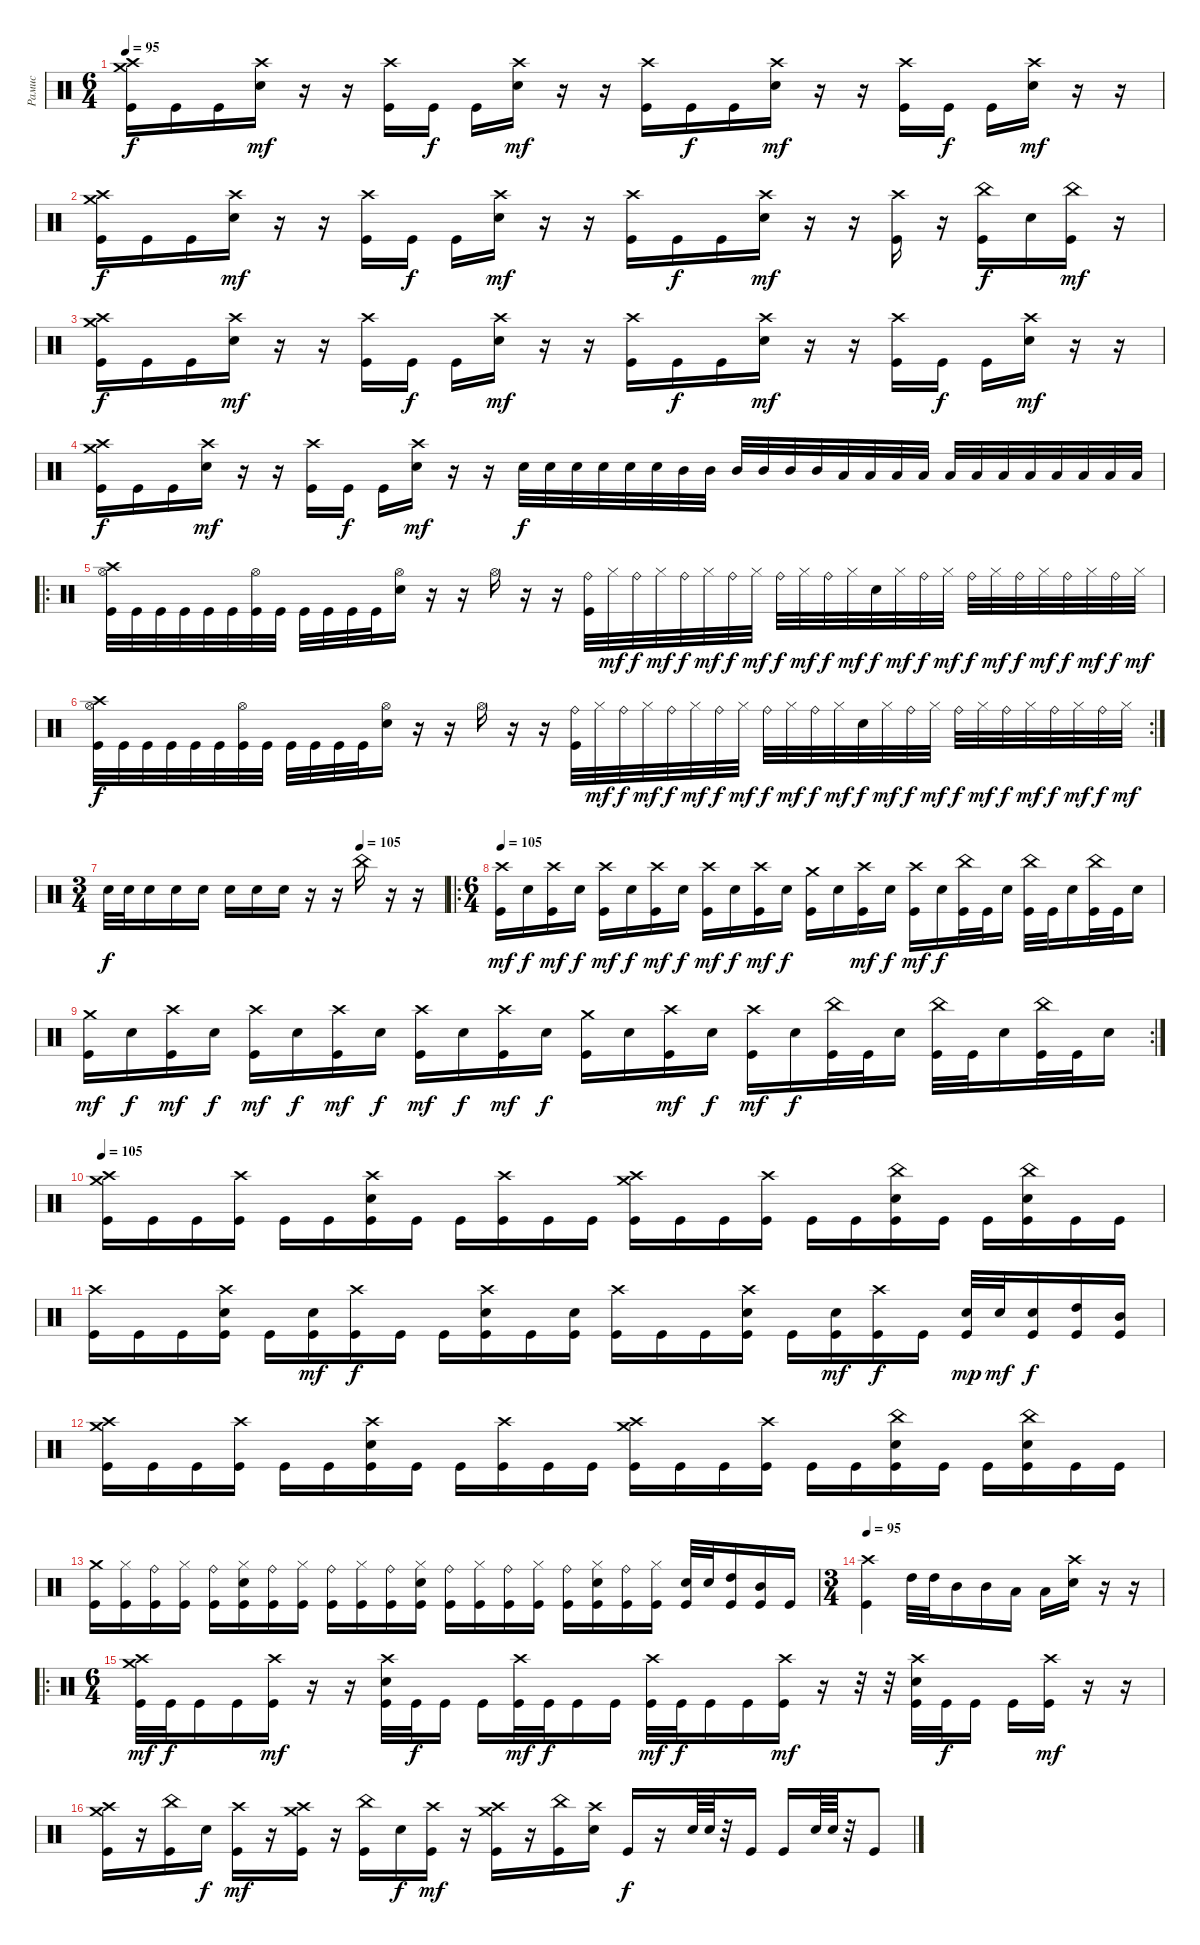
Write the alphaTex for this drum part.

\track ("Рамис" "Рамис") {instrument percussion}
\staff {score}
\articulation defaults
\ts (6 4)
\tempo 95
\clef neutral
\ks c
("Crash medium (hit)" "Crash high (hit)" "Kick (hit)").16{dy f} "Kick (hit)".16 "Kick (hit)".16 ("Crash high (hit)" "Electric Snare (hit)").16{dy mf} r.16 r.16 ("Crash high (hit)" "Kick (hit)").16 "Kick (hit)".16{dy f} "Kick (hit)".16 ("Crash high (hit)" "Electric Snare (hit)").16{dy mf} r.16 r.16 ("Crash high (hit)" "Kick (hit)").16 "Kick (hit)".16{dy f} "Kick (hit)".16 ("Crash high (hit)" "Electric Snare (hit)").16{dy mf} r.16 r.16 ("Crash high (hit)" "Kick (hit)").16 "Kick (hit)".16{dy f} "Kick (hit)".16 ("Crash high (hit)" "Electric Snare (hit)").16{dy mf} r.16 r.16 |
("Crash medium (hit)" "Crash high (hit)" "Kick (hit)").16{dy f} "Kick (hit)".16 "Kick (hit)".16 ("Crash high (hit)" "Electric Snare (hit)").16{dy mf} r.16 r.16 ("Crash high (hit)" "Kick (hit)").16 "Kick (hit)".16{dy f} "Kick (hit)".16 ("Crash high (hit)" "Electric Snare (hit)").16{dy mf} r.16 r.16 ("Crash high (hit)" "Kick (hit)").16 "Kick (hit)".16{dy f} "Kick (hit)".16 ("Crash high (hit)" "Electric Snare (hit)").16{dy mf} r.16 r.16 ("Crash high (hit)" "Kick (hit)").16 r.16 ("China (hit)" "Kick (hit)").16{dy f} "Electric Snare (hit)".16 ("China (hit)" "Kick (hit)").16{dy mf} r.16 |
("Crash medium (hit)" "Crash high (hit)" "Kick (hit)").16{dy f} "Kick (hit)".16 "Kick (hit)".16 ("Crash high (hit)" "Electric Snare (hit)").16{dy mf} r.16 r.16 ("Crash high (hit)" "Kick (hit)").16 "Kick (hit)".16{dy f} "Kick (hit)".16 ("Crash high (hit)" "Electric Snare (hit)").16{dy mf} r.16 r.16 ("Crash high (hit)" "Kick (hit)").16 "Kick (hit)".16{dy f} "Kick (hit)".16 ("Crash high (hit)" "Electric Snare (hit)").16{dy mf} r.16 r.16 ("Crash high (hit)" "Kick (hit)").16 "Kick (hit)".16{dy f} "Kick (hit)".16 ("Crash high (hit)" "Electric Snare (hit)").16{dy mf} r.16 r.16 |
("Crash medium (hit)" "Crash high (hit)" "Kick (hit)").16{dy f} "Kick (hit)".16 "Kick (hit)".16 ("Crash high (hit)" "Electric Snare (hit)").16{dy mf} r.16 r.16 ("Crash high (hit)" "Kick (hit)").16 "Kick (hit)".16{dy f} "Kick (hit)".16 ("Crash high (hit)" "Electric Snare (hit)").16{dy mf} r.16 r.16 "Electric Snare (hit)".32{dy f} "Electric Snare (hit)".32 "Electric Snare (hit)".32 "Electric Snare (hit)".32 "Electric Snare (hit)".32 "Electric Snare (hit)".32 "Mid Tom (hit)".32 "Mid Tom (hit)".32 "Mid Tom (hit)".32 "Mid Tom (hit)".32 "Mid Tom (hit)".32 "Mid Tom (hit)".32 "Low Tom (hit)".32 "Low Tom (hit)".32 "Low Tom (hit)".32 "Low Tom (hit)".32 "Low Tom (hit)".32 "Low Tom (hit)".32 "Low Tom (hit)".32 "Low Tom (hit)".32 "Low Tom (hit)".32 "Low Tom (hit)".32 "Low Tom (hit)".32 "Low Tom (hit)".32 |
\ro
("Crash high (hit)" "Hi-Hat (open)" "Kick (hit)").32 "Kick (hit)".32 "Kick (hit)".32 "Kick (hit)".32 "Kick (hit)".32 "Kick (hit)".32 ("Hi-Hat (open)" "Kick (hit)").32 "Kick (hit)".32 "Kick (hit)".32 "Kick (hit)".32 "Kick (hit)".32 "Kick (hit)".32 ("Hi-Hat (open)" "Electric Snare (hit)").16 r.16 r.16 "Hi-Hat (open)".16 r.16 r.16 ("Ride (bell)" "Kick (hit)").32 "Hi-Hat (closed)".32{dy mf} "Ride (bell)".32{dy f} "Hi-Hat (closed)".32{dy mf} "Ride (bell)".32{dy f} "Hi-Hat (closed)".32{dy mf} "Ride (bell)".32{dy f} "Hi-Hat (closed)".32{dy mf} "Ride (bell)".32{dy f} "Hi-Hat (closed)".32{dy mf} "Ride (bell)".32{dy f} "Hi-Hat (closed)".32{dy mf} "Electric Snare (hit)".32{dy f} "Hi-Hat (closed)".32{dy mf} "Ride (bell)".32{dy f} "Hi-Hat (closed)".32{dy mf} "Ride (bell)".32{dy f} "Hi-Hat (closed)".32{dy mf} "Ride (bell)".32{dy f} "Hi-Hat (closed)".32{dy mf} "Ride (bell)".32{dy f} "Hi-Hat (closed)".32{dy mf} "Ride (bell)".32{dy f} "Hi-Hat (closed)".32{dy mf} |
\rc 2
("Crash high (hit)" "Hi-Hat (open)" "Kick (hit)").32{dy f} "Kick (hit)".32 "Kick (hit)".32 "Kick (hit)".32 "Kick (hit)".32 "Kick (hit)".32 ("Hi-Hat (open)" "Kick (hit)").32 "Kick (hit)".32 "Kick (hit)".32 "Kick (hit)".32 "Kick (hit)".32 "Kick (hit)".32 ("Hi-Hat (open)" "Electric Snare (hit)").16 r.16 r.16 "Hi-Hat (open)".16 r.16 r.16 ("Ride (bell)" "Kick (hit)").32 "Hi-Hat (closed)".32{dy mf} "Ride (bell)".32{dy f} "Hi-Hat (closed)".32{dy mf} "Ride (bell)".32{dy f} "Hi-Hat (closed)".32{dy mf} "Ride (bell)".32{dy f} "Hi-Hat (closed)".32{dy mf} "Ride (bell)".32{dy f} "Hi-Hat (closed)".32{dy mf} "Ride (bell)".32{dy f} "Hi-Hat (closed)".32{dy mf} "Electric Snare (hit)".32{dy f} "Hi-Hat (closed)".32{dy mf} "Ride (bell)".32{dy f} "Hi-Hat (closed)".32{dy mf} "Ride (bell)".32{dy f} "Hi-Hat (closed)".32{dy mf} "Ride (bell)".32{dy f} "Hi-Hat (closed)".32{dy mf} "Ride (bell)".32{dy f} "Hi-Hat (closed)".32{dy mf} "Ride (bell)".32{dy f} "Hi-Hat (closed)".32{dy mf} |
\ts (3 4)
\tempo (105 0.75)
"Electric Snare (hit)".32{dy f} "Electric Snare (hit)".32 "Electric Snare (hit)".16 "Electric Snare (hit)".16 "Electric Snare (hit)".16 "Electric Snare (hit)".16 "Electric Snare (hit)".16 "Electric Snare (hit)".16 r.16 r.16 "China (hit)".16 r.16 r.16 |
\ro
\ts (6 4)
\tempo 105
("Crash high (hit)" "Kick (hit)").16{dy mf} "Electric Snare (hit)".16{dy f} ("Crash high (hit)" "Kick (hit)").16{dy mf} "Electric Snare (hit)".16{dy f} ("Crash high (hit)" "Kick (hit)").16{dy mf} "Electric Snare (hit)".16{dy f} ("Crash high (hit)" "Kick (hit)").16{dy mf} "Electric Snare (hit)".16{dy f} ("Crash high (hit)" "Kick (hit)").16{dy mf} "Electric Snare (hit)".16{dy f} ("Crash high (hit)" "Kick (hit)").16{dy mf} "Electric Snare (hit)".16{dy f} ("Crash medium (hit)" "Kick (hit)").16 "Electric Snare (hit)".16 ("Crash high (hit)" "Kick (hit)").16{dy mf} "Electric Snare (hit)".16{dy f} ("Crash high (hit)" "Kick (hit)").16{dy mf} "Electric Snare (hit)".16{dy f} ("China (hit)" "Kick (hit)").32 "Kick (hit)".32 "Electric Snare (hit)".16 ("China (hit)" "Kick (hit)").32 "Kick (hit)".32 "Electric Snare (hit)".16 ("China (hit)" "Kick (hit)").32 "Kick (hit)".32 "Electric Snare (hit)".16 |
\rc 2
("Crash medium (hit)" "Kick (hit)").16{dy mf} "Electric Snare (hit)".16{dy f} ("Crash high (hit)" "Kick (hit)").16{dy mf} "Electric Snare (hit)".16{dy f} ("Crash high (hit)" "Kick (hit)").16{dy mf} "Electric Snare (hit)".16{dy f} ("Crash high (hit)" "Kick (hit)").16{dy mf} "Electric Snare (hit)".16{dy f} ("Crash high (hit)" "Kick (hit)").16{dy mf} "Electric Snare (hit)".16{dy f} ("Crash high (hit)" "Kick (hit)").16{dy mf} "Electric Snare (hit)".16{dy f} ("Crash medium (hit)" "Kick (hit)").16 "Electric Snare (hit)".16 ("Crash high (hit)" "Kick (hit)").16{dy mf} "Electric Snare (hit)".16{dy f} ("Crash high (hit)" "Kick (hit)").16{dy mf} "Electric Snare (hit)".16{dy f} ("China (hit)" "Kick (hit)").32 "Kick (hit)".32 "Electric Snare (hit)".16 ("China (hit)" "Kick (hit)").32 "Kick (hit)".32 "Electric Snare (hit)".16 ("China (hit)" "Kick (hit)").32 "Kick (hit)".32 "Electric Snare (hit)".16 |
\tempo 105
("Crash high (hit)" "Crash medium (hit)" "Kick (hit)").16 "Kick (hit)".16 "Kick (hit)".16 ("Crash high (hit)" "Kick (hit)").16 "Kick (hit)".16 "Kick (hit)".16 ("Crash high (hit)" "Electric Snare (hit)" "Kick (hit)").16 "Kick (hit)".16 "Kick (hit)".16 ("Crash high (hit)" "Kick (hit)").16 "Kick (hit)".16 "Kick (hit)".16 ("Crash high (hit)" "Crash medium (hit)" "Kick (hit)").16 "Kick (hit)".16 "Kick (hit)".16 ("Crash high (hit)" "Kick (hit)").16 "Kick (hit)".16 "Kick (hit)".16 ("China (hit)" "Electric Snare (hit)" "Kick (hit)").16 "Kick (hit)".16 "Kick (hit)".16 ("China (hit)" "Electric Snare (hit)" "Kick (hit)").16 "Kick (hit)".16 "Kick (hit)".16 |
("Crash high (hit)" "Kick (hit)").16 "Kick (hit)".16 "Kick (hit)".16 ("Crash high (hit)" "Electric Snare (hit)" "Kick (hit)").16 "Kick (hit)".16 ("Electric Snare (hit)" "Kick (hit)").16{dy mf} ("Crash high (hit)" "Kick (hit)").16{dy f} "Kick (hit)".16 "Kick (hit)".16 ("Crash high (hit)" "Electric Snare (hit)" "Kick (hit)").16 "Kick (hit)".16 ("Electric Snare (hit)" "Kick (hit)").16 ("Crash high (hit)" "Kick (hit)").16 "Kick (hit)".16 "Kick (hit)".16 ("Crash high (hit)" "Electric Snare (hit)" "Kick (hit)").16 "Kick (hit)".16 ("Electric Snare (hit)" "Kick (hit)").16{dy mf} ("Crash high (hit)" "Kick (hit)").16{dy f} "Kick (hit)".16 ("Electric Snare (hit)" "Kick (hit)").32{dy mp} "Electric Snare (hit)".32{dy mf} ("Electric Snare (hit)" "Kick (hit)").16{dy f} ("High Tom (hit)" "Kick (hit)").16 ("Mid Tom (hit)" "Kick (hit)").16 |
("Crash high (hit)" "Crash medium (hit)" "Kick (hit)").16 "Kick (hit)".16 "Kick (hit)".16 ("Crash high (hit)" "Kick (hit)").16 "Kick (hit)".16 "Kick (hit)".16 ("Crash high (hit)" "Electric Snare (hit)" "Kick (hit)").16 "Kick (hit)".16 "Kick (hit)".16 ("Crash high (hit)" "Kick (hit)").16 "Kick (hit)".16 "Kick (hit)".16 ("Crash high (hit)" "Crash medium (hit)" "Kick (hit)").16 "Kick (hit)".16 "Kick (hit)".16 ("Crash high (hit)" "Kick (hit)").16 "Kick (hit)".16 "Kick (hit)".16 ("China (hit)" "Electric Snare (hit)" "Kick (hit)").16 "Kick (hit)".16 "Kick (hit)".16 ("China (hit)" "Electric Snare (hit)" "Kick (hit)").16 "Kick (hit)".16 "Kick (hit)".16 |
("Crash medium (hit)" "Kick (hit)").16 ("Hi-Hat (closed)" "Kick (hit)").16 ("Ride (bell)" "Kick (hit)").16 ("Hi-Hat (closed)" "Kick (hit)").16 ("Ride (bell)" "Kick (hit)").16 ("Hi-Hat (closed)" "Electric Snare (hit)" "Kick (hit)").16 ("Ride (bell)" "Kick (hit)").16 ("Hi-Hat (closed)" "Kick (hit)").16 ("Ride (bell)" "Kick (hit)").16 ("Hi-Hat (closed)" "Kick (hit)").16 ("Ride (bell)" "Kick (hit)").16 ("Hi-Hat (closed)" "Electric Snare (hit)" "Kick (hit)").16 ("Ride (bell)" "Kick (hit)").16 ("Hi-Hat (closed)" "Kick (hit)").16 ("Ride (bell)" "Kick (hit)").16 ("Hi-Hat (closed)" "Kick (hit)").16 ("Ride (bell)" "Kick (hit)").16 ("Hi-Hat (closed)" "Electric Snare (hit)" "Kick (hit)").16 ("Ride (bell)" "Kick (hit)").16 ("Hi-Hat (closed)" "Kick (hit)").16 ("Electric Snare (hit)" "Kick (hit)").32 "Electric Snare (hit)".32 ("High Tom (hit)" "Kick (hit)").16 ("Mid Tom (hit)" "Kick (hit)").16 "Kick (hit)".16 |
\ts (3 4)
\tempo 95
("Crash high (hit)" "Kick (hit)").4 "High Tom (hit)".32 "High Tom (hit)".32 "Mid Tom (hit)".16 "Mid Tom (hit)".16 "Low Tom (hit)".16 "Low Tom (hit)".16 ("Crash high (hit)" "Electric Snare (hit)").16 r.16 r.16 |
\ro
\ts (6 4)
("Crash medium (hit)" "Crash high (hit)" "Kick (hit)").32{dy mf} "Kick (hit)".32{dy f} "Kick (hit)".16 "Kick (hit)".16 ("Crash high (hit)" "Kick (hit)").16{dy mf} r.16 r.16 ("Crash high (hit)" "Electric Snare (hit)" "Kick (hit)").32 "Kick (hit)".32{dy f} "Kick (hit)".16 "Kick (hit)".16 ("Crash high (hit)" "Kick (hit)").32{dy mf} "Kick (hit)".32{dy f} "Kick (hit)".16 "Kick (hit)".16 ("Crash high (hit)" "Kick (hit)").32{dy mf} "Kick (hit)".32{dy f} "Kick (hit)".16 "Kick (hit)".16 ("Crash high (hit)" "Kick (hit)").16{dy mf} r.16 r.32 r.32 ("Crash high (hit)" "Electric Snare (hit)" "Kick (hit)").32 "Kick (hit)".32{dy f} "Kick (hit)".16 "Kick (hit)".16 ("Crash high (hit)" "Kick (hit)").16{dy mf} r.16 r.16 |
("Crash high (hit)" "Crash medium (hit)" "Kick (hit)").16 r.16 ("China (hit)" "Kick (hit)").16 "Electric Snare (hit)".16{dy f} ("Crash high (hit)" "Kick (hit)").16{dy mf} r.16 ("Crash high (hit)" "Crash medium (hit)" "Kick (hit)").16 r.16 ("China (hit)" "Kick (hit)").16 "Electric Snare (hit)".16{dy f} ("Crash high (hit)" "Kick (hit)").16{dy mf} r.16 ("Crash high (hit)" "Crash medium (hit)" "Kick (hit)").16 r.16 ("China (hit)" "Kick (hit)").16 ("Crash high (hit)" "Electric Snare (hit)").16 "Kick (hit)".16{dy f} r.16 "Electric Snare (hit)".64 "Electric Snare (hit)".64 r.32 "Kick (hit)".16 "Kick (hit)".16 "Electric Snare (hit)".64 "Electric Snare (hit)".64 r.32 "Kick (hit)".8
